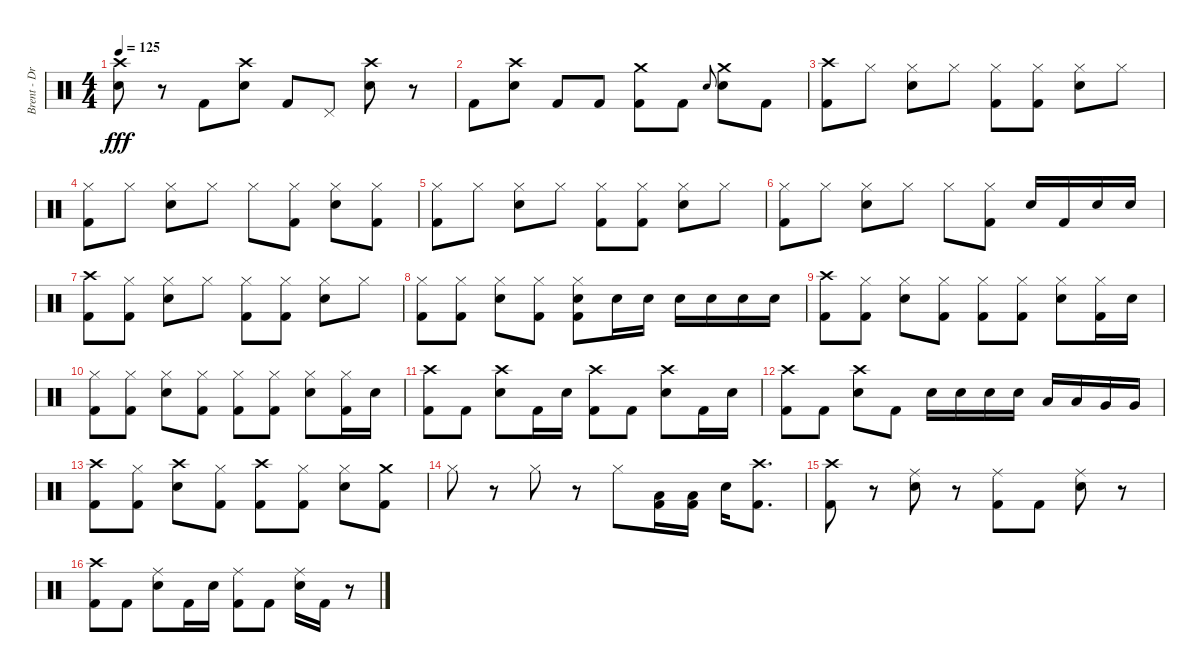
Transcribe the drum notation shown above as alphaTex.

\track ("Brent - Drums" "Brent - Dr") {instrument percussion}
\staff {score}
\articulation defaults
\ts (4 4)
\tempo 125
\clef neutral
\ks c
("Crash high (hit)" "Snare (hit) 2").8{dy fff} r.8 "Kick (hit) 2".8 ("Crash high (hit)" "Snare (hit) 2").8 "Kick (hit) 2".8 "Pedal Hi-Hat (hit)".8 ("Crash high (hit)" "Snare (hit) 2").8 r.8 |
"Kick (hit) 2".8 ("Crash high (hit)" "Snare (hit) 2").8 "Kick (hit) 2".8 "Kick (hit) 2".8 ("Crash medium (hit)" "Kick (hit) 2").8 "Kick (hit) 2".8 "Snare (hit) 2".8{gr onbeat} ("Crash medium (hit)" "Snare (hit) 2").8 "Kick (hit) 2".8 |
("Crash high (hit)" "Kick (hit) 2").8 "Hi-Hat (closed)".8 ("Hi-Hat (closed)" "Snare (hit) 2").8 "Hi-Hat (closed)".8 ("Hi-Hat (closed)" "Kick (hit) 2").8 ("Hi-Hat (closed)" "Kick (hit) 2").8 ("Hi-Hat (closed)" "Snare (hit) 2").8 "Hi-Hat (closed)".8 |
("Hi-Hat (closed)" "Kick (hit) 2").8 "Hi-Hat (closed)".8 ("Hi-Hat (closed)" "Snare (hit) 2").8 "Hi-Hat (closed)".8 "Hi-Hat (closed)".8 ("Hi-Hat (closed)" "Kick (hit) 2").8 ("Hi-Hat (closed)" "Snare (hit) 2").8 ("Hi-Hat (closed)" "Kick (hit) 2").8 |
("Hi-Hat (closed)" "Kick (hit) 2").8 "Hi-Hat (closed)".8 ("Hi-Hat (closed)" "Snare (hit) 2").8 "Hi-Hat (closed)".8 ("Hi-Hat (closed)" "Kick (hit) 2").8 ("Hi-Hat (closed)" "Kick (hit) 2").8 ("Hi-Hat (closed)" "Snare (hit) 2").8 "Hi-Hat (closed)".8 |
("Hi-Hat (closed)" "Kick (hit) 2").8 "Hi-Hat (closed)".8 ("Hi-Hat (closed)" "Snare (hit) 2").8 "Hi-Hat (closed)".8 "Hi-Hat (closed)".8 ("Hi-Hat (closed)" "Kick (hit) 2").8 "Snare (hit) 2".16 "Kick (hit) 2".16 "Snare (hit) 2".16 "Snare (hit) 2".16 |
("Crash high (hit)" "Kick (hit) 2").8 ("Hi-Hat (closed)" "Kick (hit) 2").8 ("Hi-Hat (closed)" "Snare (hit) 2").8 "Hi-Hat (closed)".8 ("Hi-Hat (closed)" "Kick (hit) 2").8 ("Hi-Hat (closed)" "Kick (hit) 2").8 ("Hi-Hat (closed)" "Snare (hit) 2").8 "Hi-Hat (closed)".8 |
("Hi-Hat (closed)" "Kick (hit) 2").8 ("Hi-Hat (closed)" "Kick (hit) 2").8 ("Hi-Hat (closed)" "Snare (hit) 2").8 ("Hi-Hat (closed)" "Kick (hit) 2").8 ("Hi-Hat (closed)" "Snare (hit) 2" "Kick (hit) 2").8 "Snare (hit) 2".16 "Snare (hit) 2".16 "Snare (hit) 2".16 "Snare (hit) 2".16 "Snare (hit) 2".16 "Snare (hit) 2".16 |
("Crash high (hit)" "Kick (hit) 2").8 ("Hi-Hat (closed)" "Kick (hit) 2").8 ("Hi-Hat (closed)" "Snare (hit) 2").8 ("Hi-Hat (closed)" "Kick (hit) 2").8 ("Hi-Hat (closed)" "Kick (hit) 2").8 ("Hi-Hat (closed)" "Kick (hit) 2").8 ("Hi-Hat (closed)" "Snare (hit) 2").8 ("Hi-Hat (closed)" "Kick (hit) 2").16 "Snare (hit) 2".16 |
("Hi-Hat (closed)" "Kick (hit) 2").8 ("Hi-Hat (closed)" "Kick (hit) 2").8 ("Hi-Hat (closed)" "Snare (hit) 2").8 ("Hi-Hat (closed)" "Kick (hit) 2").8 ("Hi-Hat (closed)" "Kick (hit) 2").8 ("Hi-Hat (closed)" "Kick (hit) 2").8 ("Hi-Hat (closed)" "Snare (hit) 2").8 ("Hi-Hat (closed)" "Kick (hit) 2").16 "Snare (hit) 2".16 |
("Crash high (hit)" "Kick (hit) 2").8 "Kick (hit) 2".8 ("Crash high (hit)" "Snare (hit) 2").8 "Kick (hit) 2".16 "Snare (hit) 2".16 ("Crash high (hit)" "Kick (hit) 2").8 "Kick (hit) 2".8 ("Crash high (hit)" "Snare (hit) 2").8 "Kick (hit) 2".16 "Snare (hit) 2".16 |
("Crash high (hit)" "Kick (hit) 2").8 "Kick (hit) 2".8 ("Crash high (hit)" "Snare (hit) 2").8 "Kick (hit) 2".8 "Snare (hit) 2".16 "Snare (hit) 2".16 "Snare (hit) 2".16 "Snare (hit) 2".16 "Low Tom (hit)".16 "Low Tom (hit)".16 "Very Low Tom (hit)".16 "Very Low Tom (hit)".16 |
("Crash high (hit)" "Kick (hit) 2").8 ("Hi-Hat (closed)" "Kick (hit) 2").8 ("Crash high (hit)" "Snare (hit) 2").8 ("Hi-Hat (closed)" "Kick (hit) 2").8 ("Crash high (hit)" "Kick (hit) 2").8 ("Hi-Hat (closed)" "Kick (hit) 2").8 ("Hi-Hat (closed)" "Snare (hit) 2").8 ("Crash medium (hit)" "Kick (hit) 2").8 |
"Hi-Hat (closed)".8 r.8 "Hi-Hat (closed)".8 r.8 "Hi-Hat (closed)".8 ("Low Floor Tom (hit)" "Kick (hit) 2").16 ("Low Floor Tom (hit)" "Kick (hit) 2").16 "Snare (hit) 2".16 ("Crash high (hit)" "Kick (hit) 2").8{d} |
("Crash high (hit)" "Kick (hit) 2").8 r.8 ("Ride (middle)" "Snare (hit) 2").8 r.8 ("Ride (middle)" "Kick (hit) 2").8 "Kick (hit) 2".8 ("Ride (middle)" "Snare (hit) 2").8 r.8 |
("Crash high (hit)" "Kick (hit) 2").8 "Kick (hit) 2".8 ("Ride (middle)" "Snare (hit) 2").8 "Kick (hit) 2".16 "Snare (hit) 2".16 ("Ride (middle)" "Kick (hit) 2").8 "Kick (hit) 2".8 ("Ride (middle)" "Snare (hit) 2").16 "Kick (hit) 2".16 r.8
